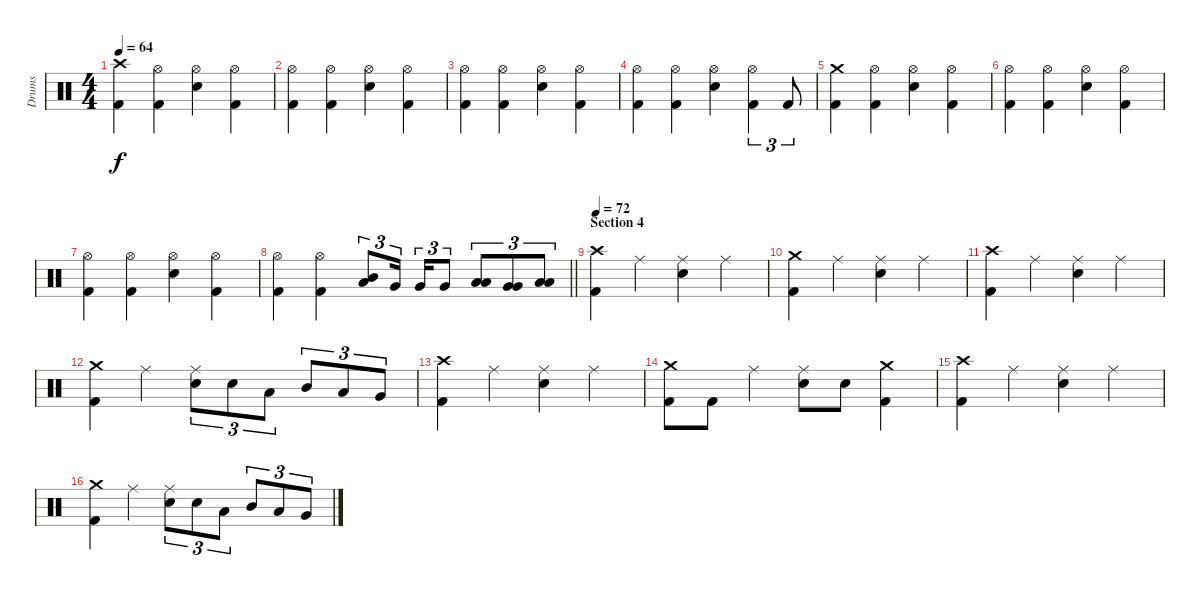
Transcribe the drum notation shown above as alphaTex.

\track ("Drums" "Drums") {instrument percussion}
\staff {score}
\articulation defaults
\ts (4 4)
\tempo 64
\clef neutral
\ks c
("Crash high (hit)" "Kick (hit) 2").4{dy f} ("Hi-Hat (open)" "Kick (hit) 2").4 ("Hi-Hat (open)" "Electric Snare (hit)").4 ("Hi-Hat (open)" "Kick (hit) 2").4 |
("Hi-Hat (open)" "Kick (hit) 2").4 ("Hi-Hat (open)" "Kick (hit) 2").4 ("Hi-Hat (open)" "Electric Snare (hit)").4 ("Hi-Hat (open)" "Kick (hit) 2").4 |
("Hi-Hat (open)" "Kick (hit) 2").4 ("Hi-Hat (open)" "Kick (hit) 2").4 ("Hi-Hat (open)" "Electric Snare (hit)").4 ("Hi-Hat (open)" "Kick (hit) 2").4 |
("Hi-Hat (open)" "Kick (hit) 2").4 ("Hi-Hat (open)" "Kick (hit) 2").4 ("Hi-Hat (open)" "Electric Snare (hit)").4 ("Hi-Hat (open)" "Kick (hit) 2").4{tu (3 2)} "Kick (hit) 2".8{tu (3 2)} |
("Crash medium (hit)" "Kick (hit) 2").4 ("Hi-Hat (open)" "Kick (hit) 2").4 ("Hi-Hat (open)" "Electric Snare (hit)").4 ("Hi-Hat (open)" "Kick (hit) 2").4 |
("Hi-Hat (open)" "Kick (hit) 2").4 ("Hi-Hat (open)" "Kick (hit) 2").4 ("Hi-Hat (open)" "Electric Snare (hit)").4 ("Hi-Hat (open)" "Kick (hit) 2").4 |
("Hi-Hat (open)" "Kick (hit) 2").4 ("Hi-Hat (open)" "Kick (hit) 2").4 ("Hi-Hat (open)" "Electric Snare (hit)").4 ("Hi-Hat (open)" "Kick (hit) 2").4 |
\barLineRight lightlight
("Hi-Hat (open)" "Kick (hit) 2").4 ("Hi-Hat (open)" "Kick (hit) 2").4 ("Mid Tom (hit)" "Low Tom (hit)").8{tu (3 2)} "Very Low Tom (hit)".16{tu (3 2) beam splitsecondary} "Very Low Tom (hit)".16{tu (3 2)} "Very Low Tom (hit)".8{tu (3 2)} ("Low Tom (hit)" "Low Tom (hit)").8{tu (3 2)} ("Very Low Tom (hit)" "Very Low Tom (hit)").8{tu (3 2)} ("Low Floor Tom (hit)" "Low Floor Tom (hit)").8{tu (3 2)} |
\section ("" "Section 4")
\tempo 72
("Crash high (hit)" "Kick (hit) 2").4 "Ride (middle)".4 ("Ride (middle)" "Electric Snare (hit)").4 "Ride (middle)".4 |
("Crash medium (hit)" "Kick (hit) 2").4 "Ride (middle)".4 ("Ride (middle)" "Electric Snare (hit)").4 "Ride (middle)".4 |
("Crash high (hit)" "Kick (hit) 2").4 "Ride (middle)".4 ("Ride (middle)" "Electric Snare (hit)").4 "Ride (middle)".4 |
("Crash medium (hit)" "Kick (hit) 2").4 "Ride (middle)".4 ("Ride (middle)" "Electric Snare (hit)").8{tu (3 2)} "Electric Snare (hit)".8{tu (3 2)} "Low Tom (hit)".8{tu (3 2)} "Mid Tom (hit)".8{tu (3 2)} "Low Tom (hit)".8{tu (3 2)} "Very Low Tom (hit)".8{tu (3 2)} |
("Crash high (hit)" "Kick (hit) 2").4 "Ride (middle)".4 ("Ride (middle)" "Electric Snare (hit)").4 "Ride (middle)".4 |
("Crash medium (hit)" "Kick (hit) 2").8 "Kick (hit) 2".8 "Ride (middle)".4 ("Ride (middle)" "Electric Snare (hit)").8 "Electric Snare (hit)".8 ("Crash medium (hit)" "Kick (hit) 2").4 |
("Crash high (hit)" "Kick (hit) 2").4 "Ride (middle)".4 ("Ride (middle)" "Electric Snare (hit)").4 "Ride (middle)".4 |
("Crash medium (hit)" "Kick (hit) 2").4 "Ride (middle)".4 ("Ride (middle)" "Electric Snare (hit)").8{tu (3 2)} "Electric Snare (hit)".8{tu (3 2)} "Low Tom (hit)".8{tu (3 2)} "Mid Tom (hit)".8{tu (3 2)} "Low Tom (hit)".8{tu (3 2)} "Very Low Tom (hit)".8{tu (3 2)}
